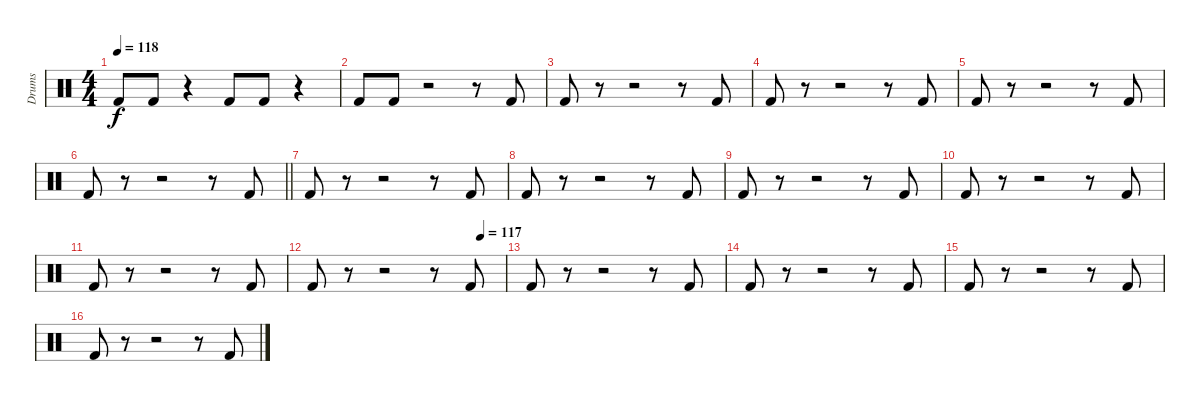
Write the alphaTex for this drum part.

\track ("Drums" "Drums") {instrument percussion}
\staff {score}
\articulation defaults
\ts (4 4)
\tempo 118
\clef neutral
\ks c "Kick (hit) 2".8{dy f} "Kick (hit) 2".8
r.4 "Kick (hit) 2".8 "Kick (hit) 2".8 r.4 |
"Kick (hit) 2".8 "Kick (hit) 2".8 r.2 r.8 "Kick (hit) 2".8 |
"Kick (hit) 2".8 r.8 r.2 r.8 "Kick (hit) 2".8 |
"Kick (hit) 2".8 r.8 r.2 r.8 "Kick (hit) 2".8 |
"Kick (hit) 2".8 r.8 r.2 r.8 "Kick (hit) 2".8 |
\barLineRight lightlight "Kick (hit) 2".8
r.8 r.2 r.8 "Kick (hit) 2".8 |
"Kick (hit) 2".8 r.8 r.2 r.8 "Kick (hit) 2".8 |
"Kick (hit) 2".8 r.8 r.2 r.8 "Kick (hit) 2".8 |
"Kick (hit) 2".8 r.8 r.2 r.8 "Kick (hit) 2".8 |
"Kick (hit) 2".8 r.8 r.2 r.8 "Kick (hit) 2".8 |
"Kick (hit) 2".8 r.8 r.2 r.8 "Kick (hit) 2".8 |
\tempo (117 0.875)
"Kick (hit) 2".8 r.8 r.2 r.8 "Kick (hit) 2".8 |
"Kick (hit) 2".8 r.8 r.2 r.8 "Kick (hit) 2".8 |
"Kick (hit) 2".8 r.8 r.2 r.8 "Kick (hit) 2".8 |
"Kick (hit) 2".8 r.8 r.2 r.8 "Kick (hit) 2".8 |
"Kick (hit) 2".8 r.8 r.2 r.8 "Kick (hit) 2".8
